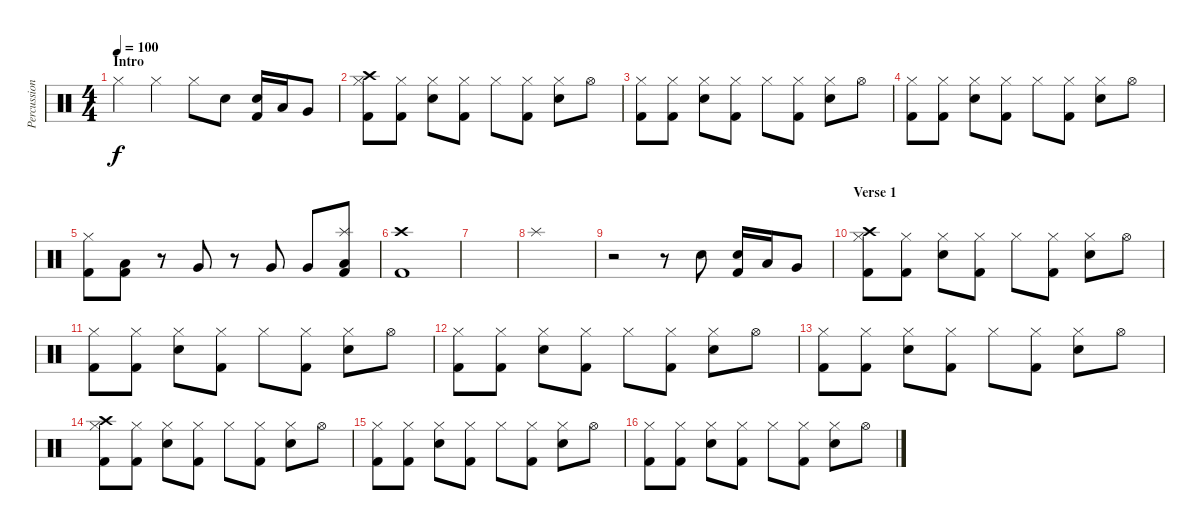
\track ("Percussion" "Percussion") {instrument percussion}
\staff {score}
\articulation defaults
\ts (4 4)
\section ("" "Intro")
\tempo 100
\clef neutral
\ks c "Hi-Hat (closed)".4{dy f} "Hi-Hat (closed)".4 "Hi-Hat (closed)".8 "Electric Snare (hit)".8
("Electric Snare (hit)" "Kick (hit) 2").16 "Low Tom (hit)".16 "Very Low Tom (hit)".8 |
("Crash high (hit)" "Hi-Hat (closed)" "Kick (hit) 2").8 ("Hi-Hat (closed)" "Kick (hit) 2").8 ("Hi-Hat (closed)" "Electric Snare (hit)").8 ("Hi-Hat (closed)" "Kick (hit) 2").8 "Hi-Hat (closed)".8 ("Hi-Hat (closed)" "Kick (hit) 2").8 ("Hi-Hat (closed)" "Electric Snare (hit)").8 "Hi-Hat (open)".8 |
("Hi-Hat (closed)" "Kick (hit) 2").8 ("Hi-Hat (closed)" "Kick (hit) 2").8 ("Hi-Hat (closed)" "Electric Snare (hit)").8 ("Hi-Hat (closed)" "Kick (hit) 2").8 "Hi-Hat (closed)".8 ("Hi-Hat (closed)" "Kick (hit) 2").8 ("Hi-Hat (closed)" "Electric Snare (hit)").8 "Hi-Hat (open)".8 |
("Hi-Hat (closed)" "Kick (hit) 2").8 ("Hi-Hat (closed)" "Kick (hit) 2").8 ("Hi-Hat (closed)" "Electric Snare (hit)").8 ("Hi-Hat (closed)" "Kick (hit) 2").8 "Hi-Hat (closed)".8 ("Hi-Hat (closed)" "Kick (hit) 2").8 ("Hi-Hat (closed)" "Electric Snare (hit)").8 "Hi-Hat (open)".8 |
("Hi-Hat (closed)" "Kick (hit) 2").8 ("Low Tom (hit)" "Kick (hit) 2").8 r.8 "Very Low Tom (hit)".8 r.8 "Very Low Tom (hit)".8 "Very Low Tom (hit)".8 ("Splash (hit)" "Low Floor Tom (hit)" "Kick (hit) 2").8 |
("Crash high (hit)" "Kick (hit) 2").1 |
|
"Splash (hit)".1 |
r.2 r.8 "Electric Snare (hit)".8 ("Electric Snare (hit)" "Kick (hit) 2").16 "Low Tom (hit)".16 "Very Low Tom (hit)".8 |
\section ("" "Verse 1")
("Crash high (hit)" "Hi-Hat (closed)" "Kick (hit) 2").8 ("Hi-Hat (closed)" "Kick (hit) 2").8 ("Hi-Hat (closed)" "Electric Snare (hit)").8 ("Hi-Hat (closed)" "Kick (hit) 2").8 "Hi-Hat (closed)".8 ("Hi-Hat (closed)" "Kick (hit) 2").8 ("Hi-Hat (closed)" "Electric Snare (hit)").8 "Hi-Hat (open)".8 |
("Hi-Hat (closed)" "Kick (hit) 2").8 ("Hi-Hat (closed)" "Kick (hit) 2").8 ("Hi-Hat (closed)" "Electric Snare (hit)").8 ("Hi-Hat (closed)" "Kick (hit) 2").8 "Hi-Hat (closed)".8 ("Hi-Hat (closed)" "Kick (hit) 2").8 ("Hi-Hat (closed)" "Electric Snare (hit)").8 "Hi-Hat (open)".8 |
("Hi-Hat (closed)" "Kick (hit) 2").8 ("Hi-Hat (closed)" "Kick (hit) 2").8 ("Hi-Hat (closed)" "Electric Snare (hit)").8 ("Hi-Hat (closed)" "Kick (hit) 2").8 "Hi-Hat (closed)".8 ("Hi-Hat (closed)" "Kick (hit) 2").8 ("Hi-Hat (closed)" "Electric Snare (hit)").8 "Hi-Hat (open)".8 |
("Hi-Hat (closed)" "Kick (hit) 2").8 ("Hi-Hat (closed)" "Kick (hit) 2").8 ("Hi-Hat (closed)" "Electric Snare (hit)").8 ("Hi-Hat (closed)" "Kick (hit) 2").8 "Hi-Hat (closed)".8 ("Hi-Hat (closed)" "Kick (hit) 2").8 ("Hi-Hat (closed)" "Electric Snare (hit)").8 "Hi-Hat (open)".8 |
("Crash high (hit)" "Hi-Hat (closed)" "Kick (hit) 2").8 ("Hi-Hat (closed)" "Kick (hit) 2").8 ("Hi-Hat (closed)" "Electric Snare (hit)").8 ("Hi-Hat (closed)" "Kick (hit) 2").8 "Hi-Hat (closed)".8 ("Hi-Hat (closed)" "Kick (hit) 2").8 ("Hi-Hat (closed)" "Electric Snare (hit)").8 "Hi-Hat (open)".8 |
("Hi-Hat (closed)" "Kick (hit) 2").8 ("Hi-Hat (closed)" "Kick (hit) 2").8 ("Hi-Hat (closed)" "Electric Snare (hit)").8 ("Hi-Hat (closed)" "Kick (hit) 2").8 "Hi-Hat (closed)".8 ("Hi-Hat (closed)" "Kick (hit) 2").8 ("Hi-Hat (closed)" "Electric Snare (hit)").8 "Hi-Hat (open)".8 |
("Hi-Hat (closed)" "Kick (hit) 2").8 ("Hi-Hat (closed)" "Kick (hit) 2").8 ("Hi-Hat (closed)" "Electric Snare (hit)").8 ("Hi-Hat (closed)" "Kick (hit) 2").8 "Hi-Hat (closed)".8 ("Hi-Hat (closed)" "Kick (hit) 2").8 ("Hi-Hat (closed)" "Electric Snare (hit)").8 "Hi-Hat (open)".8
